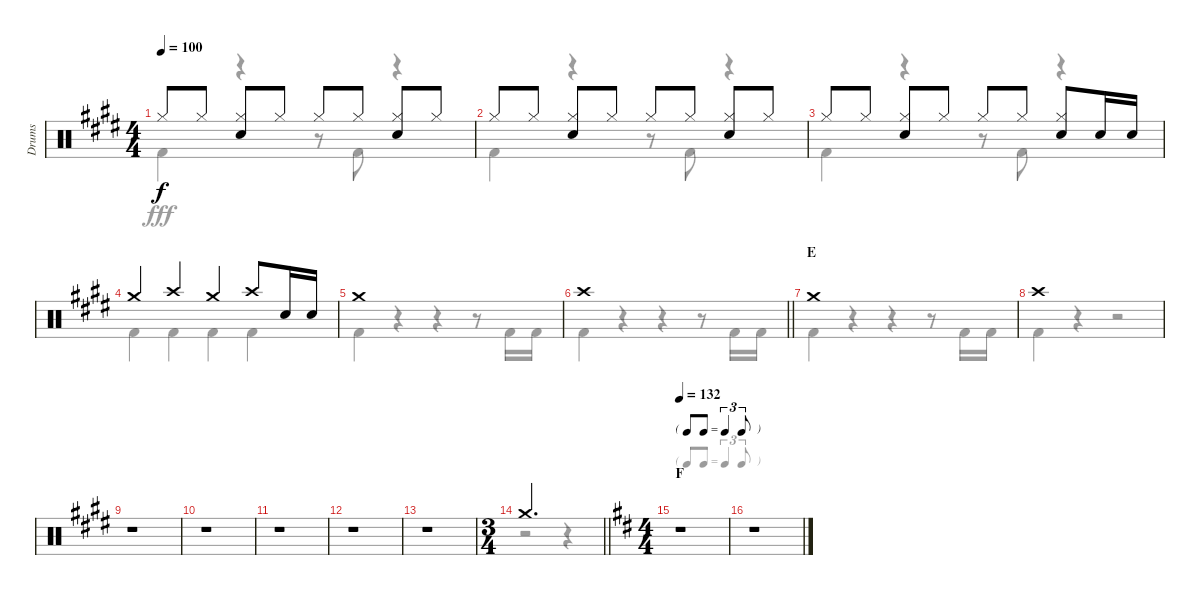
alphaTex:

\track ("Drums" "Drums") {instrument percussion}
\staff {score}
\articulation defaults
\voice
\ts (4 4)
\tempo 100
\clef neutral
\ks e "Hi-Hat (closed)".8{dy f} "Hi-Hat (closed)".8
("Hi-Hat (closed)" "Snare (hit) 2").8 "Hi-Hat (closed)".8 "Hi-Hat (closed)".8 "Hi-Hat (closed)".8 ("Hi-Hat (closed)" "Snare (hit) 2").8 "Hi-Hat (closed)".8 |
"Hi-Hat (closed)".8 "Hi-Hat (closed)".8 ("Hi-Hat (closed)" "Snare (hit) 2").8 "Hi-Hat (closed)".8 "Hi-Hat (closed)".8 "Hi-Hat (closed)".8 ("Hi-Hat (closed)" "Snare (hit) 2").8 "Hi-Hat (closed)".8 |
"Hi-Hat (closed)".8 "Hi-Hat (closed)".8 ("Hi-Hat (closed)" "Snare (hit) 2").8 "Hi-Hat (closed)".8 "Hi-Hat (closed)".8 "Hi-Hat (closed)".8 ("Hi-Hat (closed)" "Snare (hit) 2").8 "Snare (hit) 2".16 "Snare (hit) 2".16 |
"Crash medium (hit)".4 "Crash high (hit)".4 "Crash medium (hit)".4 "Crash high (hit)".8 "Snare (hit) 2".16 "Snare (hit) 2".16 |
"Crash medium (hit)".1 |
\barLineRight lightlight "Crash high (hit)".1
|
\section ("" "E")
"Crash medium (hit)".1 |
"Crash high (hit)".1 |
r.1 |
r.1 |
r.1 |
r.1 |
r.1 |
\ts (3 4)
\barLineRight lightlight "Crash medium (hit)".2{d}
|
\ts (4 4)
\tf triplet8th
\section ("" "F")
\tempo 132
\ks d
r.1 |
r.1
\voice
\clef neutral
\ottava regular
\simile none
\ks e "Kick (hit) 2".4{dy fff}
r.4 r.8 "Kick (hit) 2".8 r.4 |
"Kick (hit) 2".4 r.4 r.8 "Kick (hit) 2".8 r.4 |
"Kick (hit) 2".4 r.4 r.8 "Kick (hit) 2".8 r.4 |
"Kick (hit) 2".4 "Kick (hit) 2".4 "Kick (hit) 2".4 "Kick (hit) 2".4 |
"Kick (hit) 2".4 r.4 r.4 r.8 "Kick (hit) 2".16 "Kick (hit) 2".16 |
\barLineRight lightlight "Kick (hit) 2".4
r.4 r.4 r.8 "Kick (hit) 2".16 "Kick (hit) 2".16 |
"Kick (hit) 2".4 r.4 r.4 r.8 "Kick (hit) 2".16 "Kick (hit) 2".16 |
"Kick (hit) 2".4 r.4 r.2 |
r.1 |
r.1 |
r.1 |
r.1 |
r.1 |
\barLineRight lightlight
r.2 r.4 |
\ks d
r.1 |
r.1
